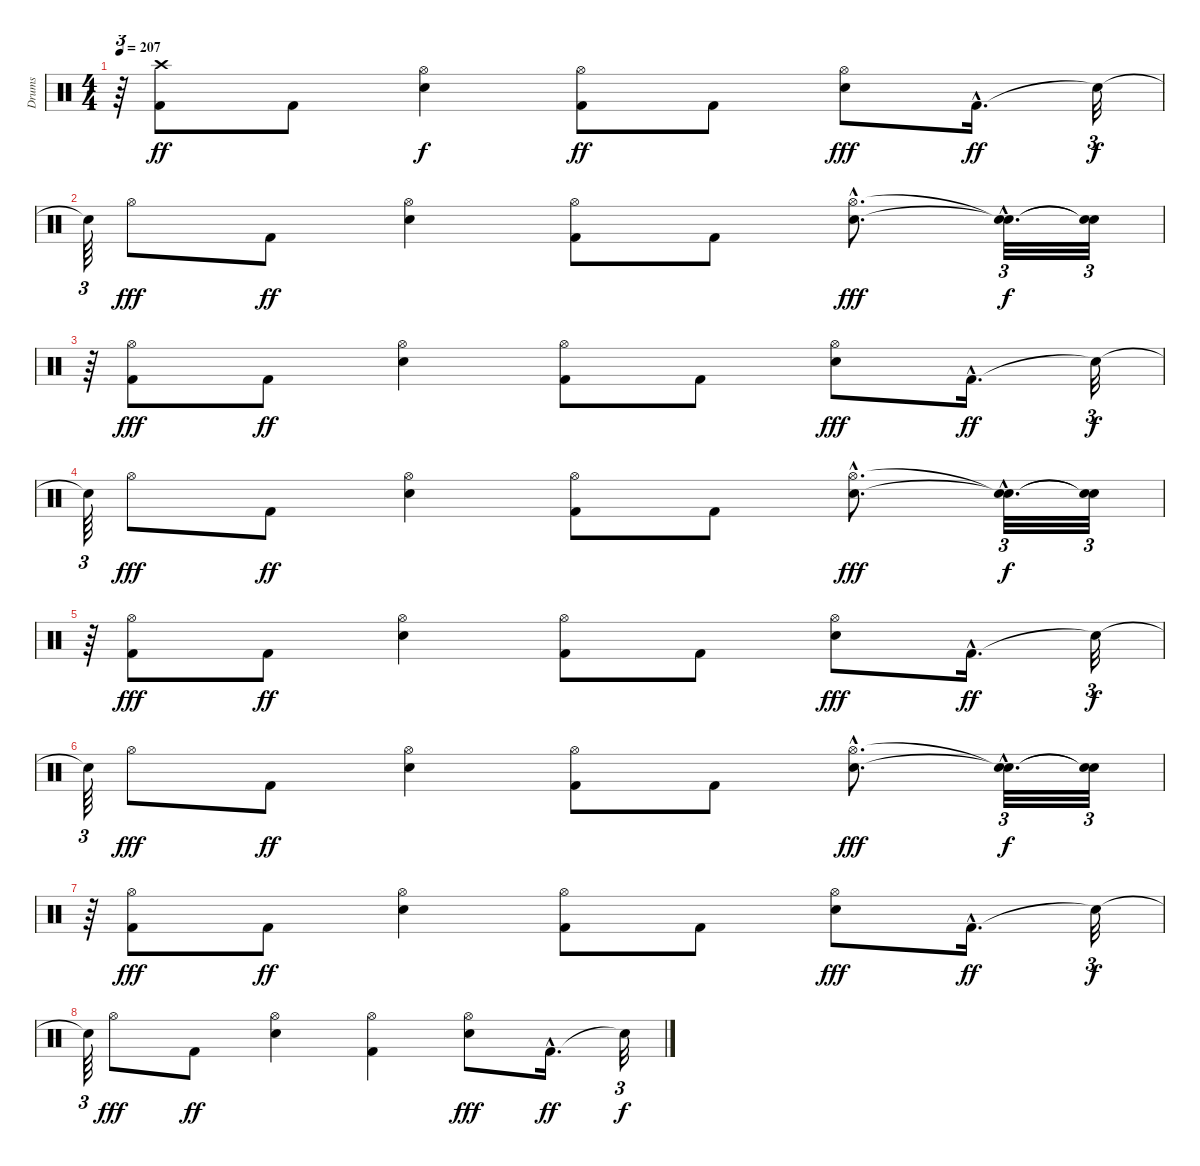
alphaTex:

\track ("Drums" "Drums") {instrument percussion}
\staff {score}
\articulation defaults
\ts (4 4)
\tempo 207
\clef neutral
\ks c
r.64{tu (3 2) dy f} ("Crash high (hit)" "Kick (hit) 2").8{dy ff} "Kick (hit) 2".8 ("Snare (hit) 2" "Hi-Hat (open)").4{dy f} ("Kick (hit) 2" "Hi-Hat (open)").8{dy ff} "Kick (hit) 2".8 ("Snare (hit) 2" "Hi-Hat (open)").8{dy fff} "Kick (hit) 2"{hac}.16{d dy ff} "Snare (hit)"{t}.32{tu (3 2) dy f} |
"Snare (hit)"{t}.64{tu (3 2)} "Hi-Hat (open)".8{dy fff} "Kick (hit) 2".8{dy ff} ("Snare (hit) 2" "Hi-Hat (open)").4 ("Kick (hit) 2" "Hi-Hat (open)").8 "Kick (hit) 2".8 ("Snare (hit) 2"{hac} "Hi-Hat (open)"{hac}).8{d dy fff} ("Snare (hit)"{hac t} "Snare (hit)"{hac t}).32{d tu (3 2) dy f} ("Snare (hit)"{t} "Snare (hit)"{t}).32{tu (3 2)} |
r.64{tu (3 2)} ("Kick (hit) 2" "Hi-Hat (open)").8{dy fff} "Kick (hit) 2".8{dy ff} ("Snare (hit) 2" "Hi-Hat (open)").4 ("Kick (hit) 2" "Hi-Hat (open)").8 "Kick (hit) 2".8 ("Snare (hit) 2" "Hi-Hat (open)").8{dy fff} "Kick (hit) 2"{hac}.16{d dy ff} "Snare (hit)"{t}.32{tu (3 2) dy f} |
"Snare (hit)"{t}.64{tu (3 2)} "Hi-Hat (open)".8{dy fff} "Kick (hit) 2".8{dy ff} ("Snare (hit) 2" "Hi-Hat (open)").4 ("Kick (hit) 2" "Hi-Hat (open)").8 "Kick (hit) 2".8 ("Snare (hit) 2"{hac} "Hi-Hat (open)"{hac}).8{d dy fff} ("Snare (hit)"{hac t} "Snare (hit)"{hac t}).32{d tu (3 2) dy f} ("Snare (hit)"{t} "Snare (hit)"{t}).32{tu (3 2)} |
r.64{tu (3 2)} ("Kick (hit) 2" "Hi-Hat (open)").8{dy fff} "Kick (hit) 2".8{dy ff} ("Snare (hit) 2" "Hi-Hat (open)").4 ("Kick (hit) 2" "Hi-Hat (open)").8 "Kick (hit) 2".8 ("Snare (hit) 2" "Hi-Hat (open)").8{dy fff} "Kick (hit) 2"{hac}.16{d dy ff} "Snare (hit)"{t}.32{tu (3 2) dy f} |
"Snare (hit)"{t}.64{tu (3 2)} "Hi-Hat (open)".8{dy fff} "Kick (hit) 2".8{dy ff} ("Snare (hit) 2" "Hi-Hat (open)").4 ("Kick (hit) 2" "Hi-Hat (open)").8 "Kick (hit) 2".8 ("Snare (hit) 2"{hac} "Hi-Hat (open)"{hac}).8{d dy fff} ("Snare (hit)"{hac t} "Snare (hit)"{hac t}).32{d tu (3 2) dy f} ("Snare (hit)"{t} "Snare (hit)"{t}).32{tu (3 2)} |
r.64{tu (3 2)} ("Kick (hit) 2" "Hi-Hat (open)").8{dy fff} "Kick (hit) 2".8{dy ff} ("Snare (hit) 2" "Hi-Hat (open)").4 ("Kick (hit) 2" "Hi-Hat (open)").8 "Kick (hit) 2".8 ("Snare (hit) 2" "Hi-Hat (open)").8{dy fff} "Kick (hit) 2"{hac}.16{d dy ff} "Snare (hit)"{t}.32{tu (3 2) dy f} |
"Snare (hit)"{t}.64{tu (3 2)} "Hi-Hat (open)".8{dy fff} "Kick (hit) 2".8{dy ff} ("Snare (hit) 2" "Hi-Hat (open)").4 ("Kick (hit) 2" "Hi-Hat (open)").4 ("Hi-Hat (open)" "Snare (hit) 2").8{dy fff} "Kick (hit) 2"{hac}.16{d dy ff} "Snare (hit)"{t}.32{tu (3 2) dy f}
